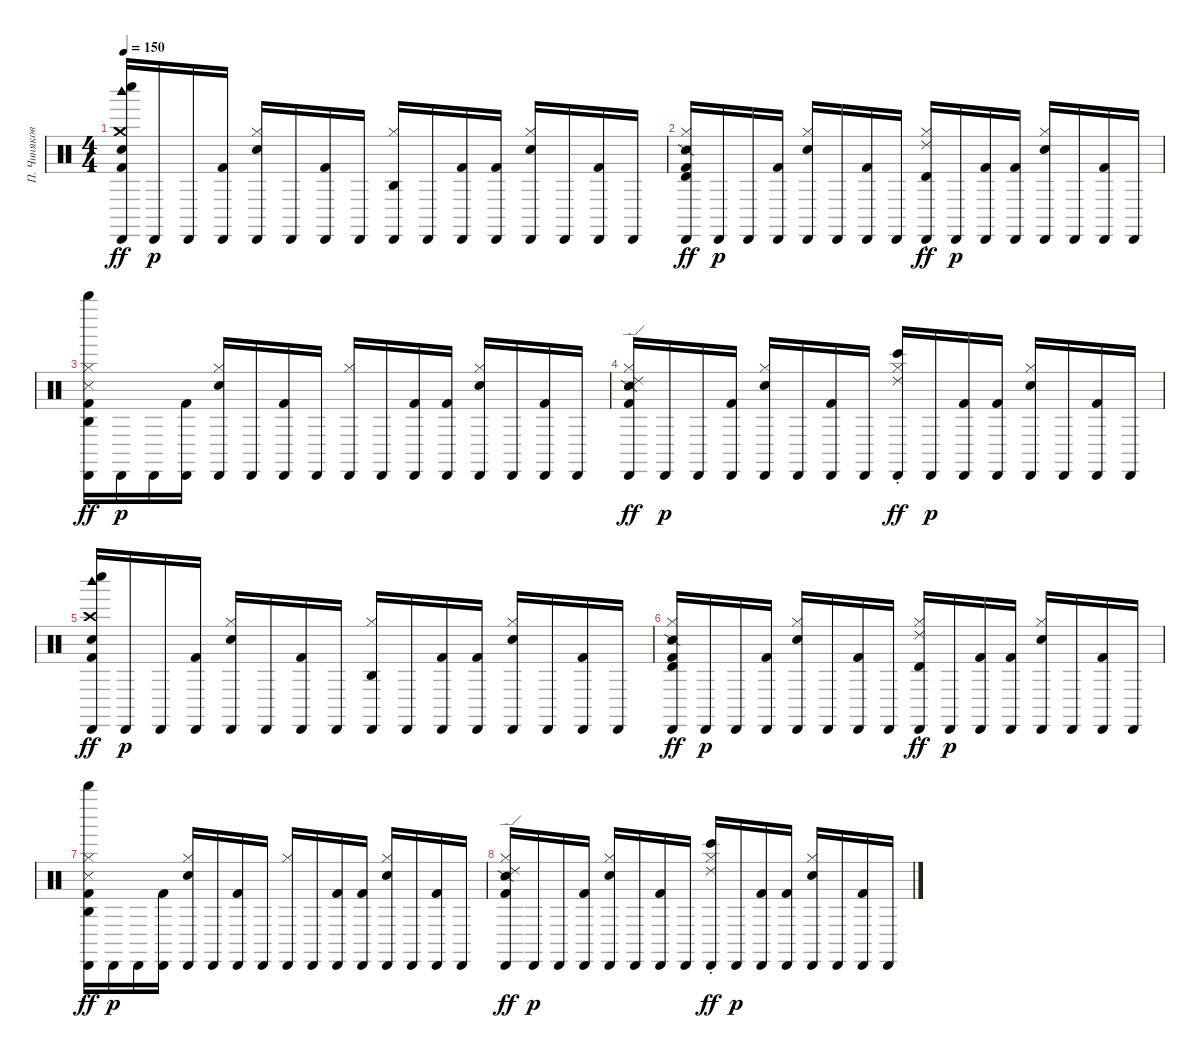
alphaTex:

\track ("П. Чиняков" "П. Чиняков") {instrument percussion}
\staff {score}
\articulation defaults
\ts (4 4)
\tempo 150
\clef neutral
\ks c
("Cabasa (hit)" "Crash medium (hit)" "Kick (hit) 2" "Snare (hit) 2" "Woodblock high (hit)" "Whistle low (hit)").16{dy ff} "Cabasa (hit)".16{dy p} "Cabasa (hit)".16 ("Cabasa (hit)" "Kick (hit) 2").16 ("Hi-Hat (closed)" "Cabasa (hit)" "Snare (hit) 2").16 "Cabasa (hit)".16 ("Cabasa (hit)" "Kick (hit) 2").16 "Cabasa (hit)".16 ("Hi-Hat (closed)" "Cabasa (hit)" "Agogo high (hit)").16 "Cabasa (hit)".16 ("Cabasa (hit)" "Kick (hit) 2").16 ("Cabasa (hit)" "Kick (hit) 2").16 ("Hi-Hat (closed)" "Cabasa (hit)" "Snare (hit) 2").16 "Cabasa (hit)".16 ("Cabasa (hit)" "Kick (hit) 2").16 "Cabasa (hit)".16 |
("Hi-Hat (closed)" "Cabasa (hit)" "Kick (hit) 2" "Snare (side stick) 2" "Timbale high (hit)").16{dy ff} "Cabasa (hit)".16{dy p} "Cabasa (hit)".16 ("Cabasa (hit)" "Kick (hit) 2").16 ("Hi-Hat (closed)" "Cabasa (hit)" "Snare (hit) 2").16 "Cabasa (hit)".16 ("Cabasa (hit)" "Kick (hit) 2").16 "Cabasa (hit)".16 ("Hi-Hat (closed)" "Cabasa (hit)" "Ride (choke) 2" "Timbale high (hit)").16{dy ff} "Cabasa (hit)".16{dy p} ("Cabasa (hit)" "Kick (hit) 2").16 ("Cabasa (hit)" "Kick (hit) 2").16 ("Hi-Hat (closed)" "Cabasa (hit)" "Snare (hit) 2").16 "Cabasa (hit)".16 ("Cabasa (hit)" "Kick (hit) 2").16 "Cabasa (hit)".16 |
("Hi-Hat (closed)" "Cabasa (hit)" "Kick (hit) 2" "Metronome (hit)" "Whistle high (hit)" "Agogo high (hit)").16{dy ff} "Cabasa (hit)".16{dy p} "Cabasa (hit)".16 ("Cabasa (hit)" "Kick (hit) 2").16 ("Hi-Hat (closed)" "Cabasa (hit)" "Snare (hit) 2").16 "Cabasa (hit)".16 ("Cabasa (hit)" "Kick (hit) 2").16 "Cabasa (hit)".16 ("Hi-Hat (closed)" "Cabasa (hit)").16 "Cabasa (hit)".16 ("Cabasa (hit)" "Kick (hit) 2").16 ("Cabasa (hit)" "Kick (hit) 2").16 ("Hi-Hat (closed)" "Cabasa (hit)" "Snare (hit) 2").16 "Cabasa (hit)".16 ("Cabasa (hit)" "Kick (hit) 2").16 "Cabasa (hit)".16 |
("Hi-Hat (closed)" "Cabasa (hit)" "Kick (hit) 2" "Snare (side stick) 2" "Ride (edge) 2").16{dy ff} "Cabasa (hit)".16{dy p} "Cabasa (hit)".16 ("Cabasa (hit)" "Kick (hit) 2").16 ("Hi-Hat (closed)" "Cabasa (hit)" "Snare (hit) 2").16 "Cabasa (hit)".16 ("Cabasa (hit)" "Kick (hit) 2").16 "Cabasa (hit)".16 ("Hi-Hat (closed)" "Cabasa (hit)" "Ride (choke) 2" "Bongo High (hit)").16{dy ff} "Cabasa (hit)".16{dy p} ("Cabasa (hit)" "Kick (hit) 2").16 ("Cabasa (hit)" "Kick (hit) 2").16 ("Hi-Hat (closed)" "Cabasa (hit)" "Snare (hit) 2").16 "Cabasa (hit)".16 ("Cabasa (hit)" "Kick (hit) 2").16 "Cabasa (hit)".16 |
("Cabasa (hit)" "Crash high (hit)" "Kick (hit) 2" "Snare (hit) 2" "Woodblock high (hit)" "Whistle low (hit)").16{dy ff} "Cabasa (hit)".16{dy p} "Cabasa (hit)".16 ("Cabasa (hit)" "Kick (hit) 2").16 ("Hi-Hat (closed)" "Cabasa (hit)" "Snare (hit) 2").16 "Cabasa (hit)".16 ("Cabasa (hit)" "Kick (hit) 2").16 "Cabasa (hit)".16 ("Hi-Hat (closed)" "Cabasa (hit)" "Agogo high (hit)").16 "Cabasa (hit)".16 ("Cabasa (hit)" "Kick (hit) 2").16 ("Cabasa (hit)" "Kick (hit) 2").16 ("Hi-Hat (closed)" "Cabasa (hit)" "Snare (hit) 2").16 "Cabasa (hit)".16 ("Cabasa (hit)" "Kick (hit) 2").16 "Cabasa (hit)".16 |
("Hi-Hat (closed)" "Cabasa (hit)" "Kick (hit) 2" "Snare (side stick) 2" "Timbale high (hit)").16{dy ff} "Cabasa (hit)".16{dy p} "Cabasa (hit)".16 ("Cabasa (hit)" "Kick (hit) 2").16 ("Hi-Hat (closed)" "Cabasa (hit)" "Snare (hit) 2").16 "Cabasa (hit)".16 ("Cabasa (hit)" "Kick (hit) 2").16 "Cabasa (hit)".16 ("Hi-Hat (closed)" "Cabasa (hit)" "Ride (choke) 2" "Timbale high (hit)").16{dy ff} "Cabasa (hit)".16{dy p} ("Cabasa (hit)" "Kick (hit) 2").16 ("Cabasa (hit)" "Kick (hit) 2").16 ("Hi-Hat (closed)" "Cabasa (hit)" "Snare (hit) 2").16 "Cabasa (hit)".16 ("Cabasa (hit)" "Kick (hit) 2").16 "Cabasa (hit)".16 |
("Hi-Hat (closed)" "Cabasa (hit)" "Kick (hit) 2" "Metronome (hit)" "Whistle high (hit)" "Agogo high (hit)").16{dy ff} "Cabasa (hit)".16{dy p} "Cabasa (hit)".16 ("Cabasa (hit)" "Kick (hit) 2").16 ("Hi-Hat (closed)" "Cabasa (hit)" "Snare (hit) 2").16 "Cabasa (hit)".16 ("Cabasa (hit)" "Kick (hit) 2").16 "Cabasa (hit)".16 ("Hi-Hat (closed)" "Cabasa (hit)").16 "Cabasa (hit)".16 ("Cabasa (hit)" "Kick (hit) 2").16 ("Cabasa (hit)" "Kick (hit) 2").16 ("Hi-Hat (closed)" "Cabasa (hit)" "Snare (hit) 2").16 "Cabasa (hit)".16 ("Cabasa (hit)" "Kick (hit) 2").16 "Cabasa (hit)".16 |
("Hi-Hat (closed)" "Cabasa (hit)" "Kick (hit) 2" "Snare (side stick) 2" "Ride (edge) 2").16{dy ff} "Cabasa (hit)".16{dy p} "Cabasa (hit)".16 ("Cabasa (hit)" "Kick (hit) 2").16 ("Hi-Hat (closed)" "Cabasa (hit)" "Snare (hit) 2").16 "Cabasa (hit)".16 ("Cabasa (hit)" "Kick (hit) 2").16 "Cabasa (hit)".16 ("Hi-Hat (closed)" "Cabasa (hit)" "Ride (choke) 2" "Bongo High (hit)").16{dy ff} "Cabasa (hit)".16{dy p} ("Cabasa (hit)" "Kick (hit) 2").16 ("Cabasa (hit)" "Kick (hit) 2").16 ("Hi-Hat (closed)" "Cabasa (hit)" "Snare (hit) 2").16 "Cabasa (hit)".16 ("Cabasa (hit)" "Kick (hit) 2").16 "Cabasa (hit)".16
